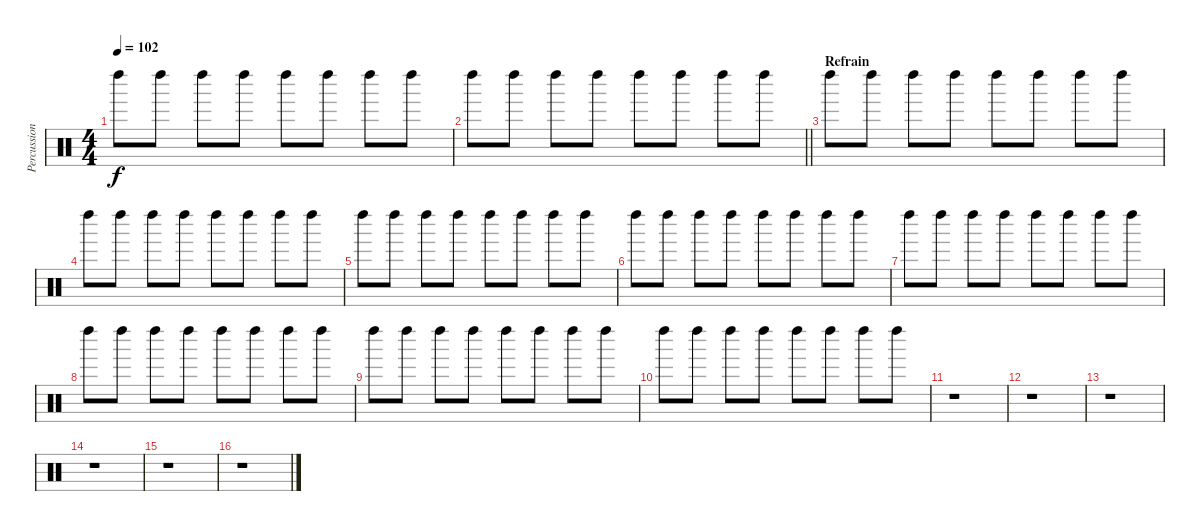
\track ("Percussions" "Percussion") {instrument percussion}
\staff {score}
\articulation defaults
\ts (4 4)
\tempo 102
\clef neutral
\ks c "Left Maraca (hit)".8{dy f} "Left Maraca (hit)".8 "Left Maraca (hit)".8 "Left Maraca (hit)".8 "Left Maraca (hit)".8 "Left Maraca (hit)".8 "Left Maraca (hit)".8 "Left Maraca (hit)".8
|
\barLineRight lightlight "Left Maraca (hit)".8 "Left Maraca (hit)".8 "Left Maraca (hit)".8 "Left Maraca (hit)".8 "Left Maraca (hit)".8 "Left Maraca (hit)".8 "Left Maraca (hit)".8 "Left Maraca (hit)".8
|
\section ("" "Refrain")
"Left Maraca (hit)".8 "Left Maraca (hit)".8 "Left Maraca (hit)".8 "Left Maraca (hit)".8 "Left Maraca (hit)".8 "Left Maraca (hit)".8 "Left Maraca (hit)".8 "Left Maraca (hit)".8 |
"Left Maraca (hit)".8 "Left Maraca (hit)".8 "Left Maraca (hit)".8 "Left Maraca (hit)".8 "Left Maraca (hit)".8 "Left Maraca (hit)".8 "Left Maraca (hit)".8 "Left Maraca (hit)".8 |
"Left Maraca (hit)".8 "Left Maraca (hit)".8 "Left Maraca (hit)".8 "Left Maraca (hit)".8 "Left Maraca (hit)".8 "Left Maraca (hit)".8 "Left Maraca (hit)".8 "Left Maraca (hit)".8 |
"Left Maraca (hit)".8 "Left Maraca (hit)".8 "Left Maraca (hit)".8 "Left Maraca (hit)".8 "Left Maraca (hit)".8 "Left Maraca (hit)".8 "Left Maraca (hit)".8 "Left Maraca (hit)".8 |
"Left Maraca (hit)".8 "Left Maraca (hit)".8 "Left Maraca (hit)".8 "Left Maraca (hit)".8 "Left Maraca (hit)".8 "Left Maraca (hit)".8 "Left Maraca (hit)".8 "Left Maraca (hit)".8 |
"Left Maraca (hit)".8 "Left Maraca (hit)".8 "Left Maraca (hit)".8 "Left Maraca (hit)".8 "Left Maraca (hit)".8 "Left Maraca (hit)".8 "Left Maraca (hit)".8 "Left Maraca (hit)".8 |
"Left Maraca (hit)".8 "Left Maraca (hit)".8 "Left Maraca (hit)".8 "Left Maraca (hit)".8 "Left Maraca (hit)".8 "Left Maraca (hit)".8 "Left Maraca (hit)".8 "Left Maraca (hit)".8 |
"Left Maraca (hit)".8 "Left Maraca (hit)".8 "Left Maraca (hit)".8 "Left Maraca (hit)".8 "Left Maraca (hit)".8 "Left Maraca (hit)".8 "Left Maraca (hit)".8 "Left Maraca (hit)".8 |
r.1 |
r.1 |
r.1 |
r.1 |
r.1 |
r.1
